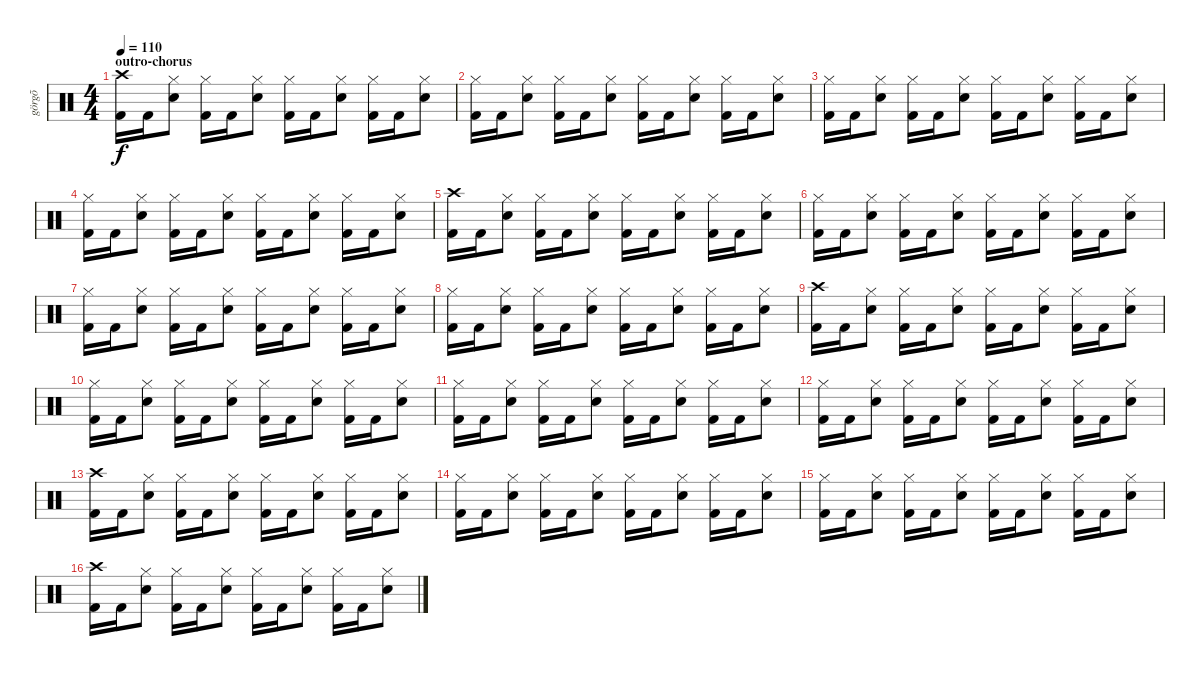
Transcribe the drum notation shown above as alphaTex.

\track ("görgõ" "görgõ") {instrument percussion}
\staff {score}
\articulation defaults
\ts (4 4)
\section ("" "outro-chorus")
\tempo 110
\clef neutral
\ks c
("Crash high (hit)" "Kick (hit) 2").16{dy f} "Kick (hit) 2".16 ("Hi-Hat (closed)" "Snare (hit) 2").8 ("Hi-Hat (closed)" "Kick (hit) 2").16 "Kick (hit) 2".16 ("Hi-Hat (closed)" "Snare (hit) 2").8 ("Hi-Hat (closed)" "Kick (hit) 2").16 "Kick (hit) 2".16 ("Hi-Hat (closed)" "Snare (hit) 2").8 ("Hi-Hat (closed)" "Kick (hit) 2").16 "Kick (hit) 2".16 ("Hi-Hat (closed)" "Snare (hit) 2").8 |
("Hi-Hat (closed)" "Kick (hit) 2").16 "Kick (hit) 2".16 ("Hi-Hat (closed)" "Snare (hit) 2").8 ("Hi-Hat (closed)" "Kick (hit) 2").16 "Kick (hit) 2".16 ("Hi-Hat (closed)" "Snare (hit) 2").8 ("Hi-Hat (closed)" "Kick (hit) 2").16 "Kick (hit) 2".16 ("Hi-Hat (closed)" "Snare (hit) 2").8 ("Hi-Hat (closed)" "Kick (hit) 2").16 "Kick (hit) 2".16 ("Hi-Hat (closed)" "Snare (hit) 2").8 |
("Hi-Hat (closed)" "Kick (hit) 2").16 "Kick (hit) 2".16 ("Hi-Hat (closed)" "Snare (hit) 2").8 ("Hi-Hat (closed)" "Kick (hit) 2").16 "Kick (hit) 2".16 ("Hi-Hat (closed)" "Snare (hit) 2").8 ("Hi-Hat (closed)" "Kick (hit) 2").16 "Kick (hit) 2".16 ("Hi-Hat (closed)" "Snare (hit) 2").8 ("Hi-Hat (closed)" "Kick (hit) 2").16 "Kick (hit) 2".16 ("Hi-Hat (closed)" "Snare (hit) 2").8 |
("Hi-Hat (closed)" "Kick (hit) 2").16 "Kick (hit) 2".16 ("Hi-Hat (closed)" "Snare (hit) 2").8 ("Hi-Hat (closed)" "Kick (hit) 2").16 "Kick (hit) 2".16 ("Hi-Hat (closed)" "Snare (hit) 2").8 ("Hi-Hat (closed)" "Kick (hit) 2").16 "Kick (hit) 2".16 ("Hi-Hat (closed)" "Snare (hit) 2").8 ("Hi-Hat (closed)" "Kick (hit) 2").16 "Kick (hit) 2".16 ("Hi-Hat (closed)" "Snare (hit) 2").8 |
("Crash high (hit)" "Kick (hit) 2").16 "Kick (hit) 2".16 ("Hi-Hat (closed)" "Snare (hit) 2").8 ("Hi-Hat (closed)" "Kick (hit) 2").16 "Kick (hit) 2".16 ("Hi-Hat (closed)" "Snare (hit) 2").8 ("Hi-Hat (closed)" "Kick (hit) 2").16 "Kick (hit) 2".16 ("Hi-Hat (closed)" "Snare (hit) 2").8 ("Hi-Hat (closed)" "Kick (hit) 2").16 "Kick (hit) 2".16 ("Hi-Hat (closed)" "Snare (hit) 2").8 |
("Hi-Hat (closed)" "Kick (hit) 2").16 "Kick (hit) 2".16 ("Hi-Hat (closed)" "Snare (hit) 2").8 ("Hi-Hat (closed)" "Kick (hit) 2").16 "Kick (hit) 2".16 ("Hi-Hat (closed)" "Snare (hit) 2").8 ("Hi-Hat (closed)" "Kick (hit) 2").16 "Kick (hit) 2".16 ("Hi-Hat (closed)" "Snare (hit) 2").8 ("Hi-Hat (closed)" "Kick (hit) 2").16 "Kick (hit) 2".16 ("Hi-Hat (closed)" "Snare (hit) 2").8 |
("Hi-Hat (closed)" "Kick (hit) 2").16 "Kick (hit) 2".16 ("Hi-Hat (closed)" "Snare (hit) 2").8 ("Hi-Hat (closed)" "Kick (hit) 2").16 "Kick (hit) 2".16 ("Hi-Hat (closed)" "Snare (hit) 2").8 ("Hi-Hat (closed)" "Kick (hit) 2").16 "Kick (hit) 2".16 ("Hi-Hat (closed)" "Snare (hit) 2").8 ("Hi-Hat (closed)" "Kick (hit) 2").16 "Kick (hit) 2".16 ("Hi-Hat (closed)" "Snare (hit) 2").8 |
("Hi-Hat (closed)" "Kick (hit) 2").16 "Kick (hit) 2".16 ("Hi-Hat (closed)" "Snare (hit) 2").8 ("Hi-Hat (closed)" "Kick (hit) 2").16 "Kick (hit) 2".16 ("Hi-Hat (closed)" "Snare (hit) 2").8 ("Hi-Hat (closed)" "Kick (hit) 2").16 "Kick (hit) 2".16 ("Hi-Hat (closed)" "Snare (hit) 2").8 ("Hi-Hat (closed)" "Kick (hit) 2").16 "Kick (hit) 2".16 ("Hi-Hat (closed)" "Snare (hit) 2").8 |
("Crash high (hit)" "Kick (hit) 2").16 "Kick (hit) 2".16 ("Hi-Hat (closed)" "Snare (hit) 2").8 ("Hi-Hat (closed)" "Kick (hit) 2").16 "Kick (hit) 2".16 ("Hi-Hat (closed)" "Snare (hit) 2").8 ("Hi-Hat (closed)" "Kick (hit) 2").16 "Kick (hit) 2".16 ("Hi-Hat (closed)" "Snare (hit) 2").8 ("Hi-Hat (closed)" "Kick (hit) 2").16 "Kick (hit) 2".16 ("Hi-Hat (closed)" "Snare (hit) 2").8 |
("Hi-Hat (closed)" "Kick (hit) 2").16 "Kick (hit) 2".16 ("Hi-Hat (closed)" "Snare (hit) 2").8 ("Hi-Hat (closed)" "Kick (hit) 2").16 "Kick (hit) 2".16 ("Hi-Hat (closed)" "Snare (hit) 2").8 ("Hi-Hat (closed)" "Kick (hit) 2").16 "Kick (hit) 2".16 ("Hi-Hat (closed)" "Snare (hit) 2").8 ("Hi-Hat (closed)" "Kick (hit) 2").16 "Kick (hit) 2".16 ("Hi-Hat (closed)" "Snare (hit) 2").8 |
("Hi-Hat (closed)" "Kick (hit) 2").16 "Kick (hit) 2".16 ("Hi-Hat (closed)" "Snare (hit) 2").8 ("Hi-Hat (closed)" "Kick (hit) 2").16 "Kick (hit) 2".16 ("Hi-Hat (closed)" "Snare (hit) 2").8 ("Hi-Hat (closed)" "Kick (hit) 2").16 "Kick (hit) 2".16 ("Hi-Hat (closed)" "Snare (hit) 2").8 ("Hi-Hat (closed)" "Kick (hit) 2").16 "Kick (hit) 2".16 ("Hi-Hat (closed)" "Snare (hit) 2").8 |
("Hi-Hat (closed)" "Kick (hit) 2").16 "Kick (hit) 2".16 ("Hi-Hat (closed)" "Snare (hit) 2").8 ("Hi-Hat (closed)" "Kick (hit) 2").16 "Kick (hit) 2".16 ("Hi-Hat (closed)" "Snare (hit) 2").8 ("Hi-Hat (closed)" "Kick (hit) 2").16 "Kick (hit) 2".16 ("Hi-Hat (closed)" "Snare (hit) 2").8 ("Hi-Hat (closed)" "Kick (hit) 2").16 "Kick (hit) 2".16 ("Hi-Hat (closed)" "Snare (hit) 2").8 |
("Crash high (hit)" "Kick (hit) 2").16 "Kick (hit) 2".16 ("Hi-Hat (closed)" "Snare (hit) 2").8 ("Hi-Hat (closed)" "Kick (hit) 2").16 "Kick (hit) 2".16 ("Hi-Hat (closed)" "Snare (hit) 2").8 ("Hi-Hat (closed)" "Kick (hit) 2").16 "Kick (hit) 2".16 ("Hi-Hat (closed)" "Snare (hit) 2").8 ("Hi-Hat (closed)" "Kick (hit) 2").16 "Kick (hit) 2".16 ("Hi-Hat (closed)" "Snare (hit) 2").8 |
("Hi-Hat (closed)" "Kick (hit) 2").16 "Kick (hit) 2".16 ("Hi-Hat (closed)" "Snare (hit) 2").8 ("Hi-Hat (closed)" "Kick (hit) 2").16 "Kick (hit) 2".16 ("Hi-Hat (closed)" "Snare (hit) 2").8 ("Hi-Hat (closed)" "Kick (hit) 2").16 "Kick (hit) 2".16 ("Hi-Hat (closed)" "Snare (hit) 2").8 ("Hi-Hat (closed)" "Kick (hit) 2").16 "Kick (hit) 2".16 ("Hi-Hat (closed)" "Snare (hit) 2").8 |
("Hi-Hat (closed)" "Kick (hit) 2").16 "Kick (hit) 2".16 ("Hi-Hat (closed)" "Snare (hit) 2").8 ("Hi-Hat (closed)" "Kick (hit) 2").16 "Kick (hit) 2".16 ("Hi-Hat (closed)" "Snare (hit) 2").8 ("Hi-Hat (closed)" "Kick (hit) 2").16 "Kick (hit) 2".16 ("Hi-Hat (closed)" "Snare (hit) 2").8 ("Hi-Hat (closed)" "Kick (hit) 2").16 "Kick (hit) 2".16 ("Hi-Hat (closed)" "Snare (hit) 2").8 |
("Crash high (hit)" "Kick (hit) 2").16 "Kick (hit) 2".16 ("Hi-Hat (closed)" "Snare (hit) 2").8 ("Hi-Hat (closed)" "Kick (hit) 2").16 "Kick (hit) 2".16 ("Hi-Hat (closed)" "Snare (hit) 2").8 ("Hi-Hat (closed)" "Kick (hit) 2").16 "Kick (hit) 2".16 ("Hi-Hat (closed)" "Snare (hit) 2").8 ("Hi-Hat (closed)" "Kick (hit) 2").16 "Kick (hit) 2".16 ("Hi-Hat (closed)" "Snare (hit) 2").8
